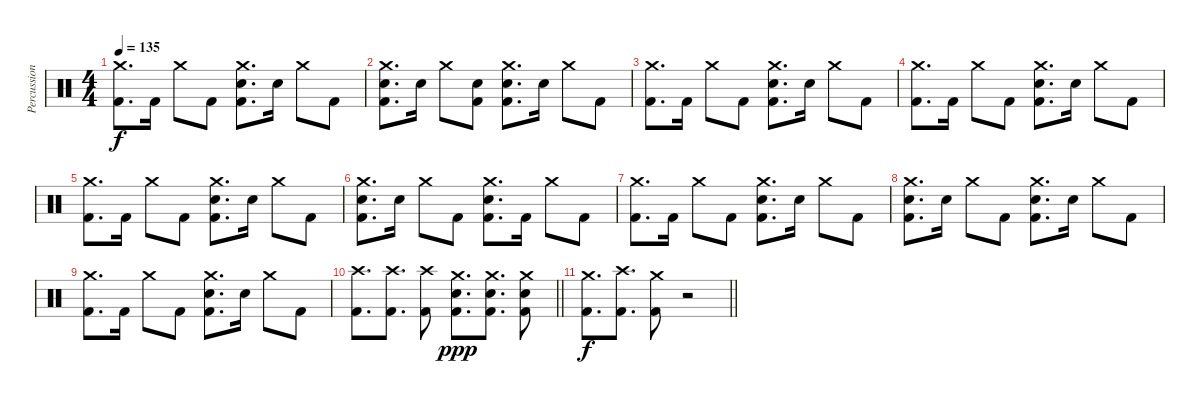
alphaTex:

\track ("Percussions" "Percussion") {instrument percussion}
\staff {score}
\articulation defaults
\ts (4 4)
\tempo 135
\clef neutral
\ks c
("Crash medium (hit)" "Kick (hit) 2").8{d dy f} "Kick (hit) 2".16 "Crash medium (hit)".8 "Kick (hit) 2".8 ("Crash medium (hit)" "Electric Snare (hit)" "Kick (hit) 2").8{d} "Electric Snare (hit)".16 "Crash medium (hit)".8 "Kick (hit) 2".8 |
("Crash medium (hit)" "Electric Snare (hit)" "Kick (hit) 2").8{d} "Electric Snare (hit)".16 "Crash medium (hit)".8 ("Electric Snare (hit)" "Kick (hit) 2").8 ("Crash medium (hit)" "Electric Snare (hit)" "Kick (hit) 2").8{d} "Electric Snare (hit)".16 "Crash medium (hit)".8 "Kick (hit) 2".8 |
("Crash medium (hit)" "Kick (hit) 2").8{d} "Kick (hit) 2".16 "Crash medium (hit)".8 "Kick (hit) 2".8 ("Crash medium (hit)" "Electric Snare (hit)" "Kick (hit) 2").8{d} "Electric Snare (hit)".16 "Crash medium (hit)".8 "Kick (hit) 2".8 |
("Crash medium (hit)" "Kick (hit) 2").8{d} "Kick (hit) 2".16 "Crash medium (hit)".8 "Kick (hit) 2".8 ("Crash medium (hit)" "Electric Snare (hit)" "Kick (hit) 2").8{d} "Electric Snare (hit)".16 "Crash medium (hit)".8 "Kick (hit) 2".8 |
("Crash medium (hit)" "Kick (hit) 2").8{d} "Kick (hit) 2".16 "Crash medium (hit)".8 "Kick (hit) 2".8 ("Crash medium (hit)" "Electric Snare (hit)" "Kick (hit) 2").8{d} "Electric Snare (hit)".16 "Crash medium (hit)".8 "Kick (hit) 2".8 |
("Crash medium (hit)" "Electric Snare (hit)" "Kick (hit) 2").8{d} "Electric Snare (hit)".16 "Crash medium (hit)".8 "Kick (hit) 2".8 ("Crash medium (hit)" "Electric Snare (hit)" "Kick (hit) 2").8{d} "Kick (hit) 2".16 "Crash medium (hit)".8 "Kick (hit) 2".8 |
("Crash medium (hit)" "Kick (hit) 2").8{d} "Kick (hit) 2".16 "Crash medium (hit)".8 "Kick (hit) 2".8 ("Crash medium (hit)" "Electric Snare (hit)" "Kick (hit) 2").8{d} "Electric Snare (hit)".16 "Crash medium (hit)".8 "Kick (hit) 2".8 |
("Crash medium (hit)" "Electric Snare (hit)" "Kick (hit) 2").8{d} "Electric Snare (hit)".16 "Crash medium (hit)".8 "Kick (hit) 2".8 ("Crash medium (hit)" "Electric Snare (hit)" "Kick (hit) 2").8{d} "Electric Snare (hit)".16 "Crash medium (hit)".8 "Kick (hit) 2".8 |
("Crash medium (hit)" "Kick (hit) 2").8{d} "Kick (hit) 2".16 "Crash medium (hit)".8 "Kick (hit) 2".8 ("Crash medium (hit)" "Electric Snare (hit)" "Kick (hit) 2").8{d} "Electric Snare (hit)".16 "Crash medium (hit)".8 "Kick (hit) 2".8 |
\barLineRight lightlight
("Crash high (hit)" "Kick (hit) 2").8{d} ("Crash high (hit)" "Kick (hit) 2").8{d} ("Crash high (hit)" "Kick (hit) 2").8 ("Crash medium (hit)" "Electric Snare (hit)" "Kick (hit) 2").8{d dy ppp} ("Crash medium (hit)" "Electric Snare (hit)" "Kick (hit) 2").8{d} ("Crash medium (hit)" "Electric Snare (hit)" "Kick (hit) 2").8 |
\barLineRight lightlight
("Crash medium (hit)" "Kick (hit) 2").8{d dy f} ("Crash high (hit)" "Kick (hit) 2").8{d} ("Crash medium (hit)" "Kick (hit) 2").8 r.2
